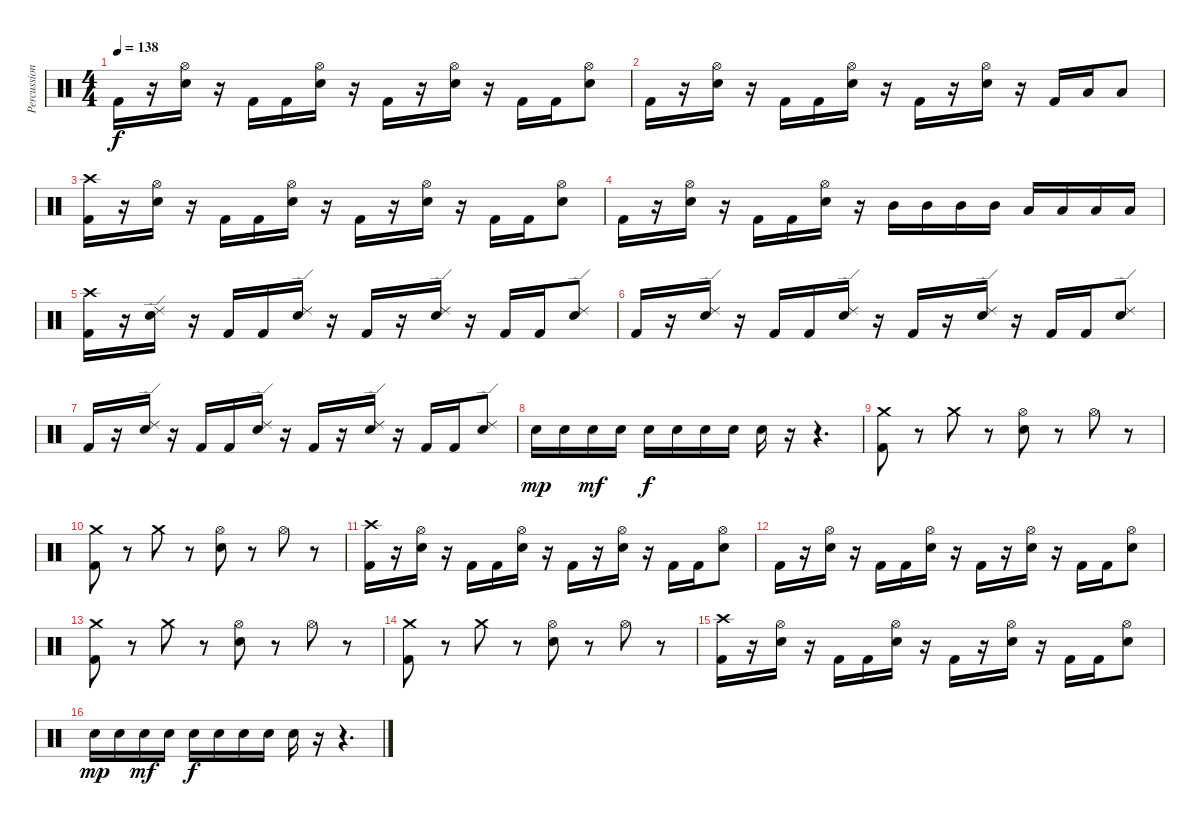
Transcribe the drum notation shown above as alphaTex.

\track ("Percussion" "Percussion") {instrument percussion}
\staff {score}
\articulation defaults
\ts (4 4)
\tempo 138
\clef neutral
\ks c "Kick (hit) 2".16{dy f}
r.16 ("Hi-Hat (open)" "Electric Snare (hit)").16 r.16 "Kick (hit) 2".16 "Kick (hit) 2".16 ("Hi-Hat (open)" "Electric Snare (hit)").16 r.16 "Kick (hit) 2".16 r.16 ("Hi-Hat (open)" "Electric Snare (hit)").16 r.16 "Kick (hit) 2".16 "Kick (hit) 2".16 ("Hi-Hat (open)" "Electric Snare (hit)").8 |
"Kick (hit) 2".16 r.16 ("Hi-Hat (open)" "Electric Snare (hit)").16 r.16 "Kick (hit) 2".16 "Kick (hit) 2".16 ("Hi-Hat (open)" "Electric Snare (hit)").16 r.16 "Kick (hit) 2".16 r.16 ("Hi-Hat (open)" "Electric Snare (hit)").16 r.16 "Kick (hit) 2".16 "Low Tom (hit)".16 "Low Tom (hit)".8 |
("Crash high (hit)" "Kick (hit) 2").16 r.16 ("Hi-Hat (open)" "Electric Snare (hit)").16 r.16 "Kick (hit) 2".16 "Kick (hit) 2".16 ("Hi-Hat (open)" "Electric Snare (hit)").16 r.16 "Kick (hit) 2".16 r.16 ("Hi-Hat (open)" "Electric Snare (hit)").16 r.16 "Kick (hit) 2".16 "Kick (hit) 2".16 ("Hi-Hat (open)" "Electric Snare (hit)").8 |
"Kick (hit) 2".16 r.16 ("Hi-Hat (open)" "Electric Snare (hit)").16 r.16 "Kick (hit) 2".16 "Kick (hit) 2".16 ("Hi-Hat (open)" "Electric Snare (hit)").16 r.16 "Mid Tom (hit)".16 "Mid Tom (hit)".16 "Mid Tom (hit)".16 "Mid Tom (hit)".16 "Low Tom (hit)".16 "Low Tom (hit)".16 "Low Tom (hit)".16 "Low Tom (hit)".16 |
("Crash high (hit)" "Kick (hit) 2").16 r.16 ("Ride (edge) 2" "Electric Snare (hit)").16 r.16 "Kick (hit) 2".16 "Kick (hit) 2".16 ("Ride (edge) 2" "Electric Snare (hit)").16 r.16 "Kick (hit) 2".16 r.16 ("Ride (edge) 2" "Electric Snare (hit)").16 r.16 "Kick (hit) 2".16 "Kick (hit) 2".16 ("Ride (edge) 2" "Electric Snare (hit)").8 |
"Kick (hit) 2".16 r.16 ("Ride (edge) 2" "Electric Snare (hit)").16 r.16 "Kick (hit) 2".16 "Kick (hit) 2".16 ("Ride (edge) 2" "Electric Snare (hit)").16 r.16 "Kick (hit) 2".16 r.16 ("Ride (edge) 2" "Electric Snare (hit)").16 r.16 "Kick (hit) 2".16 "Kick (hit) 2".16 ("Ride (edge) 2" "Electric Snare (hit)").8 |
"Kick (hit) 2".16 r.16 ("Ride (edge) 2" "Electric Snare (hit)").16 r.16 "Kick (hit) 2".16 "Kick (hit) 2".16 ("Ride (edge) 2" "Electric Snare (hit)").16 r.16 "Kick (hit) 2".16 r.16 ("Ride (edge) 2" "Electric Snare (hit)").16 r.16 "Kick (hit) 2".16 "Kick (hit) 2".16 ("Ride (edge) 2" "Electric Snare (hit)").8 |
"Electric Snare (hit)".16{dy mp} "Electric Snare (hit)".16 "Electric Snare (hit)".16{dy mf} "Electric Snare (hit)".16 "Electric Snare (hit)".16{dy f} "Electric Snare (hit)".16 "Electric Snare (hit)".16 "Electric Snare (hit)".16 "Electric Snare (hit)".16 r.16 r.4{d} |
("Crash medium (hit)" "Kick (hit) 2").8 r.8 "Crash medium (hit)".8 r.8 ("Hi-Hat (open)" "Electric Snare (hit)").8 r.8 "Hi-Hat (open)".8 r.8 |
("Crash medium (hit)" "Kick (hit) 2").8 r.8 "Crash medium (hit)".8 r.8 ("Hi-Hat (open)" "Electric Snare (hit)").8 r.8 "Hi-Hat (open)".8 r.8 |
("Crash high (hit)" "Kick (hit) 2").16 r.16 ("Hi-Hat (open)" "Electric Snare (hit)").16 r.16 "Kick (hit) 2".16 "Kick (hit) 2".16 ("Hi-Hat (open)" "Electric Snare (hit)").16 r.16 "Kick (hit) 2".16 r.16 ("Hi-Hat (open)" "Electric Snare (hit)").16 r.16 "Kick (hit) 2".16 "Kick (hit) 2".16 ("Hi-Hat (open)" "Electric Snare (hit)").8 |
"Kick (hit) 2".16 r.16 ("Hi-Hat (open)" "Electric Snare (hit)").16 r.16 "Kick (hit) 2".16 "Kick (hit) 2".16 ("Hi-Hat (open)" "Electric Snare (hit)").16 r.16 "Kick (hit) 2".16 r.16 ("Hi-Hat (open)" "Electric Snare (hit)").16 r.16 "Kick (hit) 2".16 "Kick (hit) 2".16 ("Hi-Hat (open)" "Electric Snare (hit)").8 |
("Crash medium (hit)" "Kick (hit) 2").8 r.8 "Crash medium (hit)".8 r.8 ("Hi-Hat (open)" "Electric Snare (hit)").8 r.8 "Hi-Hat (open)".8 r.8 |
("Crash medium (hit)" "Kick (hit) 2").8 r.8 "Crash medium (hit)".8 r.8 ("Hi-Hat (open)" "Electric Snare (hit)").8 r.8 "Hi-Hat (open)".8 r.8 |
("Crash high (hit)" "Kick (hit) 2").16 r.16 ("Hi-Hat (open)" "Electric Snare (hit)").16 r.16 "Kick (hit) 2".16 "Kick (hit) 2".16 ("Hi-Hat (open)" "Electric Snare (hit)").16 r.16 "Kick (hit) 2".16 r.16 ("Hi-Hat (open)" "Electric Snare (hit)").16 r.16 "Kick (hit) 2".16 "Kick (hit) 2".16 ("Hi-Hat (open)" "Electric Snare (hit)").8 |
"Electric Snare (hit)".16{dy mp} "Electric Snare (hit)".16 "Electric Snare (hit)".16{dy mf} "Electric Snare (hit)".16 "Electric Snare (hit)".16{dy f} "Electric Snare (hit)".16 "Electric Snare (hit)".16 "Electric Snare (hit)".16 "Electric Snare (hit)".16 r.16 r.4{d}
